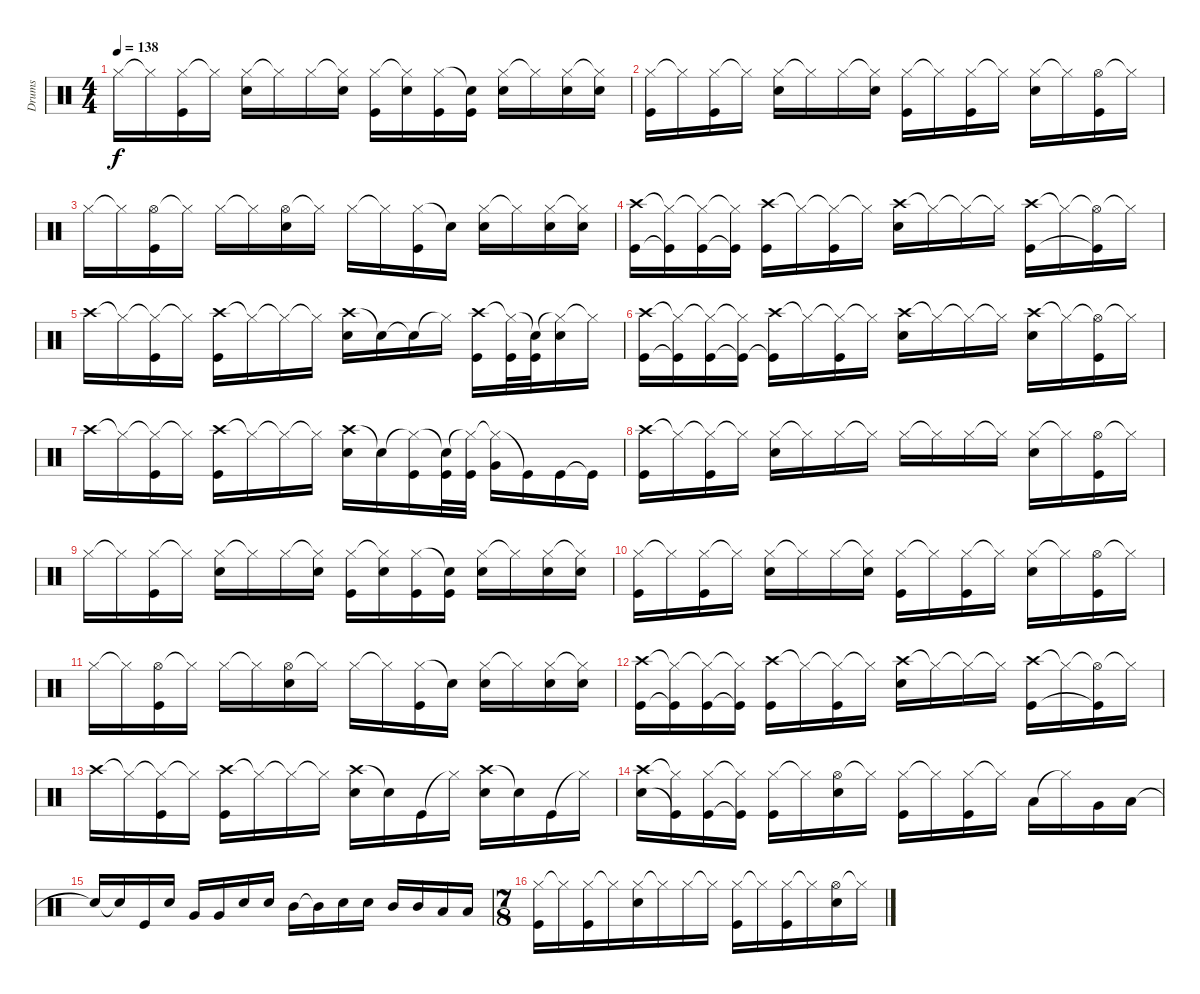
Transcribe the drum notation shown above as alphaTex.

\track ("Drums" "Drums") {instrument percussion}
\staff {score}
\articulation defaults
\ts (4 4)
\tempo 138
\clef neutral
\ks c "Hi-Hat (closed)".16{dy f} "Hi-Hat (closed)"{t}.16
("Hi-Hat (closed)" "Kick (hit)").16 "Hi-Hat (closed)"{t}.16 ("Hi-Hat (closed)" "Electric Snare (hit)").16 "Hi-Hat (closed)"{t}.16 "Hi-Hat (closed)".16 ("Hi-Hat (closed)"{t} "Electric Snare (hit)").16 ("Hi-Hat (closed)" "Kick (hit)").16 ("Hi-Hat (closed)"{t} "Electric Snare (hit)").16 ("Hi-Hat (closed)" "Kick (hit)").16 ("Snare (hit)"{t} "Kick (hit)").16 ("Hi-Hat (closed)" "Electric Snare (hit)").16 "Hi-Hat (closed)"{t}.16 ("Hi-Hat (closed)" "Electric Snare (hit)").16 ("Hi-Hat (closed)"{t} "Electric Snare (hit)").16 |
("Hi-Hat (closed)" "Kick (hit)").16 "Hi-Hat (closed)"{t}.16 ("Hi-Hat (closed)" "Kick (hit)").16 "Hi-Hat (closed)"{t}.16 ("Hi-Hat (closed)" "Electric Snare (hit)").16 "Hi-Hat (closed)"{t}.16 "Hi-Hat (closed)".16 ("Hi-Hat (closed)"{t} "Electric Snare (hit)").16 ("Hi-Hat (closed)" "Kick (hit)").16 "Hi-Hat (closed)"{t}.16 ("Hi-Hat (closed)" "Kick (hit)").16 "Hi-Hat (closed)"{t}.16 ("Hi-Hat (closed)" "Electric Snare (hit)").16 "Hi-Hat (closed)"{t}.16 ("Hi-Hat (open)" "Kick (hit)").16 "Hi-Hat (closed)"{t}.16 |
"Hi-Hat (closed)".16 "Hi-Hat (closed)"{t}.16 ("Hi-Hat (open)" "Kick (hit)").16 "Hi-Hat (closed)"{t}.16 "Hi-Hat (closed)".16 "Hi-Hat (closed)"{t}.16 ("Hi-Hat (open)" "Electric Snare (hit)").16 "Hi-Hat (closed)"{t}.16 "Hi-Hat (closed)".16 "Hi-Hat (closed)"{t}.16 ("Hi-Hat (closed)" "Kick (hit)").16 "Snare (hit)"{t}.16 ("Hi-Hat (closed)" "Electric Snare (hit)").16 "Hi-Hat (closed)"{t}.16 ("Hi-Hat (closed)" "Electric Snare (hit)").16 ("Hi-Hat (closed)"{t} "Electric Snare (hit)").16 |
("Crash high (hit)" "Kick (hit)").16 ("Hi-Hat (closed)"{t} "Kick (hit)"{t}).16 ("Hi-Hat (closed)"{t} "Kick (hit)").16 ("Hi-Hat (closed)"{t} "Kick (hit)"{t}).16 ("Crash high (hit)" "Kick (hit)").16 "Hi-Hat (closed)"{t}.16 ("Hi-Hat (closed)"{t} "Kick (hit)").16 "Hi-Hat (closed)"{t}.16 ("Crash high (hit)" "Electric Snare (hit)").16 "Hi-Hat (closed)"{t}.16 "Hi-Hat (closed)"{t}.16 "Hi-Hat (closed)"{t}.16 ("Crash high (hit)" "Kick (hit)").16 "Hi-Hat (closed)"{t}.16 ("Hi-Hat (open)"{t} "Kick (hit)"{t}).16 "Hi-Hat (closed)"{t}.16 |
"Crash high (hit)".16 "Hi-Hat (closed)"{t}.16 ("Hi-Hat (closed)"{t} "Kick (hit)").16 "Hi-Hat (closed)"{t}.16 ("Crash high (hit)" "Kick (hit)").16 "Hi-Hat (closed)"{t}.16 "Hi-Hat (closed)"{t}.16 "Hi-Hat (closed)"{t}.16 ("Crash high (hit)" "Electric Snare (hit)").16 "Snare (hit)"{t}.16 "Snare (hit)"{t}.16 "Hi-Hat (closed)"{t}.16 ("Crash high (hit)" "Kick (hit)").16 ("Hi-Hat (closed)"{t} "Kick (hit)").32 ("Snare (hit)"{t} "Kick (hit)").32 ("Hi-Hat (closed)"{t} "Electric Snare (hit)").16 "Hi-Hat (closed)"{t}.16 |
("Crash high (hit)" "Kick (hit)").16 ("Hi-Hat (closed)"{t} "Kick (hit)"{t}).16 ("Hi-Hat (closed)"{t} "Kick (hit)").16 ("Hi-Hat (closed)"{t} "Kick (hit)"{t}).16 ("Crash high (hit)" "Kick (hit)"{t}).16 "Hi-Hat (closed)"{t}.16 ("Hi-Hat (closed)"{t} "Kick (hit)").16 "Hi-Hat (closed)"{t}.16 ("Crash high (hit)" "Electric Snare (hit)").16 "Hi-Hat (closed)"{t}.16 "Hi-Hat (closed)"{t}.16 "Hi-Hat (closed)"{t}.16 ("Crash high (hit)" "Electric Snare (hit)").16 "Hi-Hat (closed)"{t}.16 ("Hi-Hat (open)"{t} "Kick (hit)").16 "Hi-Hat (closed)"{t}.16 |
"Crash high (hit)".16 "Hi-Hat (closed)"{t}.16 ("Hi-Hat (closed)"{t} "Kick (hit)").16 "Hi-Hat (closed)"{t}.16 ("Crash high (hit)" "Kick (hit)").16 "Hi-Hat (closed)"{t}.16 "Hi-Hat (closed)"{t}.16 "Hi-Hat (closed)"{t}.16 ("Crash high (hit)" "Electric Snare (hit)").16 "Snare (hit)"{t}.16 ("Hi-Hat (closed)"{t} "Kick (hit)").16 ("Snare (hit)"{t} "Kick (hit)").32 ("Hi-Hat (closed)"{t} "Kick (hit)").32 ("Hi-Hat (closed)"{t} "Very Low Tom (hit)").16 "Kick (hit)"{t}.16 "Kick (hit)".16 "Kick (hit)"{t}.16 |
("Crash high (hit)" "Kick (hit)").16 "Hi-Hat (closed)"{t}.16 ("Hi-Hat (closed)"{t} "Kick (hit)").16 "Hi-Hat (closed)"{t}.16 ("Hi-Hat (closed)" "Electric Snare (hit)").16 "Hi-Hat (closed)"{t}.16 "Hi-Hat (closed)".16 "Hi-Hat (closed)"{t}.16 "Hi-Hat (closed)".16 "Hi-Hat (closed)"{t}.16 "Hi-Hat (closed)".16 "Hi-Hat (closed)"{t}.16 ("Hi-Hat (closed)" "Electric Snare (hit)").16 "Hi-Hat (closed)"{t}.16 ("Hi-Hat (open)" "Kick (hit)").16 "Hi-Hat (closed)"{t}.16 |
"Hi-Hat (closed)".16 "Hi-Hat (closed)"{t}.16 ("Hi-Hat (closed)" "Kick (hit)").16 "Hi-Hat (closed)"{t}.16 ("Hi-Hat (closed)" "Electric Snare (hit)").16 "Hi-Hat (closed)"{t}.16 "Hi-Hat (closed)".16 ("Hi-Hat (closed)"{t} "Electric Snare (hit)").16 ("Hi-Hat (closed)" "Kick (hit)").16 ("Hi-Hat (closed)"{t} "Electric Snare (hit)").16 ("Hi-Hat (closed)" "Kick (hit)").16 ("Snare (hit)"{t} "Kick (hit)").16 ("Hi-Hat (closed)" "Electric Snare (hit)").16 "Hi-Hat (closed)"{t}.16 ("Hi-Hat (closed)" "Electric Snare (hit)").16 ("Hi-Hat (closed)"{t} "Electric Snare (hit)").16 |
("Hi-Hat (closed)" "Kick (hit)").16 "Hi-Hat (closed)"{t}.16 ("Hi-Hat (closed)" "Kick (hit)").16 "Hi-Hat (closed)"{t}.16 ("Hi-Hat (closed)" "Electric Snare (hit)").16 "Hi-Hat (closed)"{t}.16 "Hi-Hat (closed)".16 ("Hi-Hat (closed)"{t} "Electric Snare (hit)").16 ("Hi-Hat (closed)" "Kick (hit)").16 "Hi-Hat (closed)"{t}.16 ("Hi-Hat (closed)" "Kick (hit)").16 "Hi-Hat (closed)"{t}.16 ("Hi-Hat (closed)" "Electric Snare (hit)").16 "Hi-Hat (closed)"{t}.16 ("Hi-Hat (open)" "Kick (hit)").16 "Hi-Hat (closed)"{t}.16 |
"Hi-Hat (closed)".16 "Hi-Hat (closed)"{t}.16 ("Hi-Hat (open)" "Kick (hit)").16 "Hi-Hat (closed)"{t}.16 "Hi-Hat (closed)".16 "Hi-Hat (closed)"{t}.16 ("Hi-Hat (open)" "Electric Snare (hit)").16 "Hi-Hat (closed)"{t}.16 "Hi-Hat (closed)".16 "Hi-Hat (closed)"{t}.16 ("Hi-Hat (closed)" "Kick (hit)").16 "Snare (hit)"{t}.16 ("Hi-Hat (closed)" "Electric Snare (hit)").16 "Hi-Hat (closed)"{t}.16 ("Hi-Hat (closed)" "Electric Snare (hit)").16 ("Hi-Hat (closed)"{t} "Electric Snare (hit)").16 |
("Crash high (hit)" "Kick (hit)").16 ("Hi-Hat (closed)"{t} "Kick (hit)"{t}).16 ("Hi-Hat (closed)"{t} "Kick (hit)").16 ("Hi-Hat (closed)"{t} "Kick (hit)"{t}).16 ("Crash high (hit)" "Kick (hit)").16 "Hi-Hat (closed)"{t}.16 ("Hi-Hat (closed)"{t} "Kick (hit)").16 "Hi-Hat (closed)"{t}.16 ("Crash high (hit)" "Electric Snare (hit)").16 "Hi-Hat (closed)"{t}.16 "Hi-Hat (closed)"{t}.16 "Hi-Hat (closed)"{t}.16 ("Crash high (hit)" "Kick (hit)").16 "Hi-Hat (closed)"{t}.16 ("Hi-Hat (open)"{t} "Kick (hit)"{t}).16 "Hi-Hat (closed)"{t}.16 |
"Crash high (hit)".16 "Hi-Hat (closed)"{t}.16 ("Hi-Hat (closed)"{t} "Kick (hit)").16 "Hi-Hat (closed)"{t}.16 ("Crash high (hit)" "Kick (hit)").16 "Hi-Hat (closed)"{t}.16 "Hi-Hat (closed)"{t}.16 "Hi-Hat (closed)"{t}.16 ("Crash high (hit)" "Electric Snare (hit)").16 "Snare (hit)"{t}.16 "Kick (hit)".16 "Hi-Hat (closed)"{t}.16 ("Crash high (hit)" "Electric Snare (hit)").16 "Snare (hit)"{t}.16 "Kick (hit)".16 "Hi-Hat (closed)"{t}.16 |
("Crash high (hit)" "Electric Snare (hit)").16 ("Hi-Hat (closed)"{t} "Kick (hit)"{t}).16 ("Hi-Hat (closed)" "Kick (hit)").16 ("Hi-Hat (closed)"{t} "Kick (hit)"{t}).16 ("Hi-Hat (closed)" "Kick (hit)").16 "Hi-Hat (closed)"{t}.16 ("Hi-Hat (open)" "Electric Snare (hit)").16 "Hi-Hat (closed)"{t}.16 ("Hi-Hat (closed)" "Kick (hit)").16 "Hi-Hat (closed)"{t}.16 ("Hi-Hat (closed)" "Kick (hit)").16 "Hi-Hat (closed)"{t}.16 "Low Tom (hit)".16 "Hi-Hat (closed)"{t}.16 "Very Low Tom (hit)".16 "Low Tom (hit)".16 |
"Snare (hit)"{t}.16 "Snare (hit)"{t}.16 "Kick (hit)".16 "Electric Snare (hit)".16 "Very Low Tom (hit)".16 "Very Low Tom (hit)".16 "Electric Snare (hit)".16 "Electric Snare (hit)".16 "Mid Tom (hit)".16 "Mid Tom (hit)"{t}.16 "Electric Snare (hit)".16 "Electric Snare (hit)".16 "Mid Tom (hit)".16 "Mid Tom (hit)".16 "Low Tom (hit)".16 "Low Tom (hit)".16 |
\ts (7 8)
("Hi-Hat (closed)" "Kick (hit)").16 "Hi-Hat (closed)"{t}.16 ("Hi-Hat (closed)" "Kick (hit)").16 "Hi-Hat (closed)"{t}.16 ("Hi-Hat (closed)" "Electric Snare (hit)").16 "Hi-Hat (closed)"{t}.16 "Hi-Hat (closed)".16 "Hi-Hat (closed)"{t}.16 ("Hi-Hat (closed)" "Kick (hit)").16 "Hi-Hat (closed)"{t}.16 ("Hi-Hat (closed)" "Kick (hit)").16 "Hi-Hat (closed)"{t}.16 ("Hi-Hat (open)" "Electric Snare (hit)").16 "Hi-Hat (closed)"{t}.16
